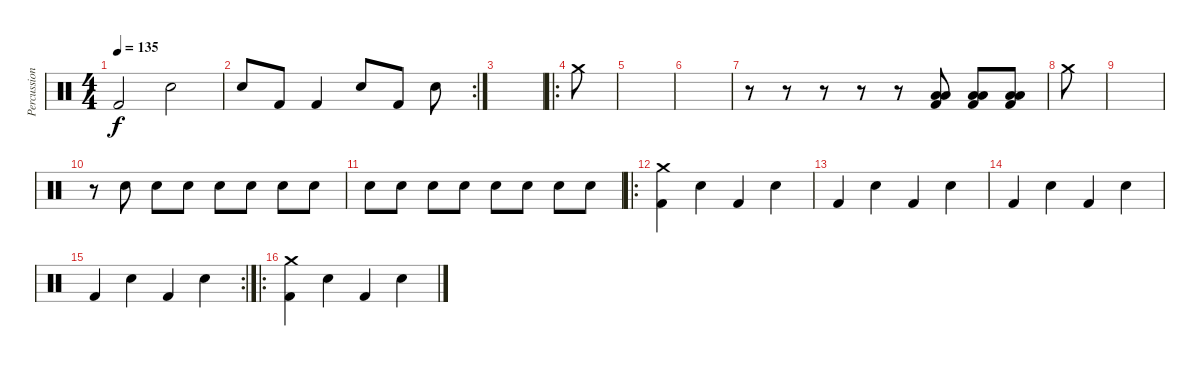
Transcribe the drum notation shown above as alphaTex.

\track ("Percussion" "Percussion") {instrument percussion}
\staff {score}
\articulation defaults
\ts (4 4)
\tempo 135
\clef neutral
\ks c "Kick (hit) 2".2{dy f} "Snare (hit) 2".2
|
\rc 2 "Snare (hit) 2".8 "Kick (hit) 2".8 "Kick (hit) 2".4 "Snare (hit) 2".8 "Kick (hit) 2".8 "Snare (hit) 2".8
|
|
\ro "Crash medium (hit)".8
|
|
|
r.8 r.8 r.8 r.8 r.8 ("Low Tom (hit)" "Low Tom (hit)" "Kick (hit) 2").8 ("Low Tom (hit)" "Low Tom (hit)" "Kick (hit) 2").8 ("Low Tom (hit)" "Low Tom (hit)" "Kick (hit) 2").8 |
"Crash medium (hit)".8 |
|
r.8 "Snare (hit) 2".8 "Snare (hit) 2".8 "Snare (hit) 2".8 "Snare (hit) 2".8 "Snare (hit) 2".8 "Snare (hit) 2".8 "Snare (hit) 2".8 |
"Snare (hit) 2".8 "Snare (hit) 2".8 "Snare (hit) 2".8 "Snare (hit) 2".8 "Snare (hit) 2".8 "Snare (hit) 2".8 "Snare (hit) 2".8 "Snare (hit) 2".8 |
\ro
("Crash medium (hit)" "Kick (hit) 2").4 "Snare (hit) 2".4 "Kick (hit) 2".4 "Snare (hit) 2".4 |
"Kick (hit) 2".4 "Snare (hit) 2".4 "Kick (hit) 2".4 "Snare (hit) 2".4 |
"Kick (hit) 2".4 "Snare (hit) 2".4 "Kick (hit) 2".4 "Snare (hit) 2".4 |
\rc 2 "Kick (hit) 2".4 "Snare (hit) 2".4 "Kick (hit) 2".4 "Snare (hit) 2".4
|
\ro
("Crash medium (hit)" "Kick (hit) 2").4 "Snare (hit) 2".4 "Kick (hit) 2".4 "Snare (hit) 2".4
